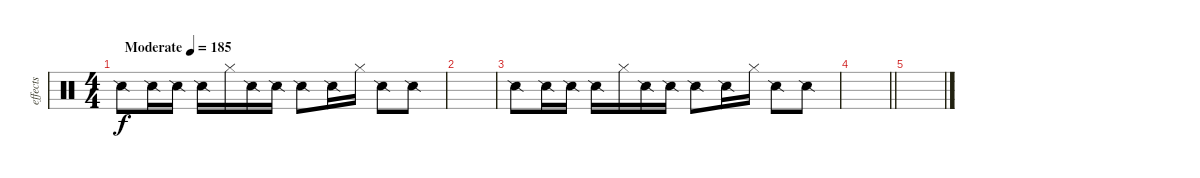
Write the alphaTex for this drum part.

\track ("effects" "effects") {instrument percussion}
\staff {score}
\articulation defaults
\ts (4 4)
\tempo (185 "Moderate")
\clef neutral
\ks c "Snare (side stick) 2".8{dy f balance 16} "Snare (side stick) 2".16 "Snare (side stick) 2".16 "Snare (side stick) 2".16 "Hi-Hat (closed)".16 "Snare (side stick) 2".16 "Snare (side stick) 2".16 "Snare (side stick) 2".8 "Snare (side stick) 2".16 "Hi-Hat (closed)".16 "Snare (side stick) 2".8 "Snare (side stick) 2".8
|
|
"Snare (side stick) 2".8{balance 0} "Snare (side stick) 2".16 "Snare (side stick) 2".16 "Snare (side stick) 2".16 "Hi-Hat (closed)".16 "Snare (side stick) 2".16 "Snare (side stick) 2".16 "Snare (side stick) 2".8 "Snare (side stick) 2".16 "Hi-Hat (closed)".16 "Snare (side stick) 2".8 "Snare (side stick) 2".8 |
\barLineRight lightlight
|
\section ("" "")
